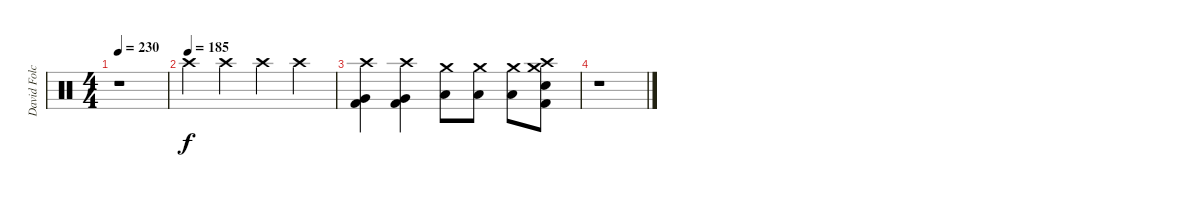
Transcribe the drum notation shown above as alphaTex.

\track ("David Folchitto" "David Folc") {instrument percussion}
\staff {score}
\articulation defaults
\ts (4 4)
\tempo 230
\clef neutral
\ks c
r.1{dy p} |
\tempo (185)
"Crash high (hit)".4{dy f} "Crash high (hit)".4 "Crash high (hit)".4 "Crash high (hit)".4 |
("Crash high (hit)" "Very Low Tom (hit)" "Kick (hit) 2").4 ("Crash high (hit)" "Very Low Tom (hit)" "Kick (hit) 2").4 ("Crash medium (hit)" "Low Tom (hit)").8 ("Crash medium (hit)" "Low Tom (hit)").8 ("Crash medium (hit)" "Low Tom (hit)").8 ("Crash medium (hit)" "Crash high (hit)" "Snare (hit) 2" "Kick (hit) 2").8 |
r.1
